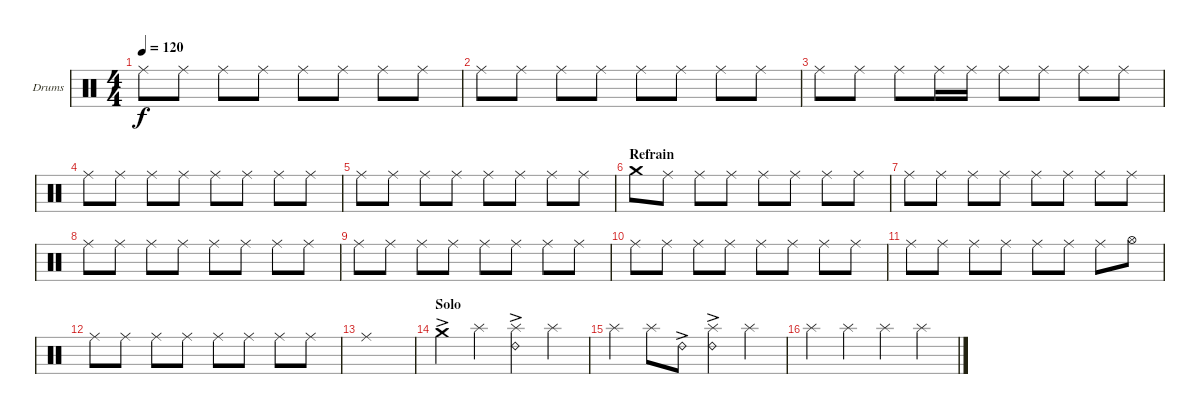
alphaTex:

\defaultSystemsLayout 4
\bracketExtendMode groupsimilarinstruments
\firstSystemTrackNameOrientation horizontal
\otherSystemsTrackNameOrientation horizontal
\track ("Drumkit" "Drums") {multiBarRest instrument percussion}
\staff {score}
\articulation defaults
\ts (4 4)
\tempo 120
\clef neutral
\ks c "Ride (middle)".8{dy f} "Ride (middle)".8 "Ride (middle)".8 "Ride (middle)".8 "Ride (middle)".8 "Ride (middle)".8 "Ride (middle)".8 "Ride (middle)".8
|
"Ride (middle)".8 "Ride (middle)".8 "Ride (middle)".8 "Ride (middle)".8 "Ride (middle)".8 "Ride (middle)".8 "Ride (middle)".8 "Ride (middle)".8 |
"Ride (middle)".8 "Ride (middle)".8 "Ride (middle)".8 "Ride (middle)".16 "Ride (middle)".16 "Ride (middle)".8 "Ride (middle)".8 "Ride (middle)".8 "Ride (middle)".8 |
"Ride (middle)".8 "Ride (middle)".8 "Ride (middle)".8 "Ride (middle)".8 "Ride (middle)".8 "Ride (middle)".8 "Ride (middle)".8 "Ride (middle)".8 |
"Ride (middle)".8 "Ride (middle)".8 "Ride (middle)".8 "Ride (middle)".8 "Ride (middle)".8 "Ride (middle)".8 "Ride (middle)".8 "Ride (middle)".8 |
\section ("" "Refrain")
"Crash medium (hit)".8 "Ride (middle)".8 "Ride (middle)".8 "Ride (middle)".8 "Ride (middle)".8 "Ride (middle)".8 "Ride (middle)".8 "Ride (middle)".8 |
"Ride (middle)".8 "Ride (middle)".8 "Ride (middle)".8 "Ride (middle)".8 "Ride (middle)".8 "Ride (middle)".8 "Ride (middle)".8 "Ride (middle)".8 |
"Ride (middle)".8 "Ride (middle)".8 "Ride (middle)".8 "Ride (middle)".8 "Ride (middle)".8 "Ride (middle)".8 "Ride (middle)".8 "Ride (middle)".8 |
"Ride (middle)".8 "Ride (middle)".8 "Ride (middle)".8 "Ride (middle)".8 "Ride (middle)".8 "Ride (middle)".8 "Ride (middle)".8 "Ride (middle)".8 |
"Ride (middle)".8 "Ride (middle)".8 "Ride (middle)".8 "Ride (middle)".8 "Ride (middle)".8 "Ride (middle)".8 "Ride (middle)".8 "Ride (middle)".8 |
"Ride (middle)".8 "Ride (middle)".8 "Ride (middle)".8 "Ride (middle)".8 "Ride (middle)".8 "Ride (middle)".8 "Ride (middle)".8 "Hi-Hat (open)".8 |
"Ride (middle)".8 "Ride (middle)".8 "Ride (middle)".8 "Ride (middle)".8 "Ride (middle)".8 "Ride (middle)".8 "Ride (middle)".8 "Ride (middle)".8 |
"Ride (middle)".1 |
\section ("" "Solo")
"Crash medium (hit)"{ac}.4 "Splash (hit)".4 ("Ride (bell) 2"{ac} "Splash (hit)").4 "Splash (hit)".4 |
"Splash (hit)".4 "Splash (hit)".8 "Ride (bell) 2"{ac}.8 ("Ride (bell) 2"{ac} "Splash (hit)").4 "Splash (hit)".4 |
"Splash (hit)".4 "Splash (hit)".4 "Splash (hit)".4 "Splash (hit)".4
